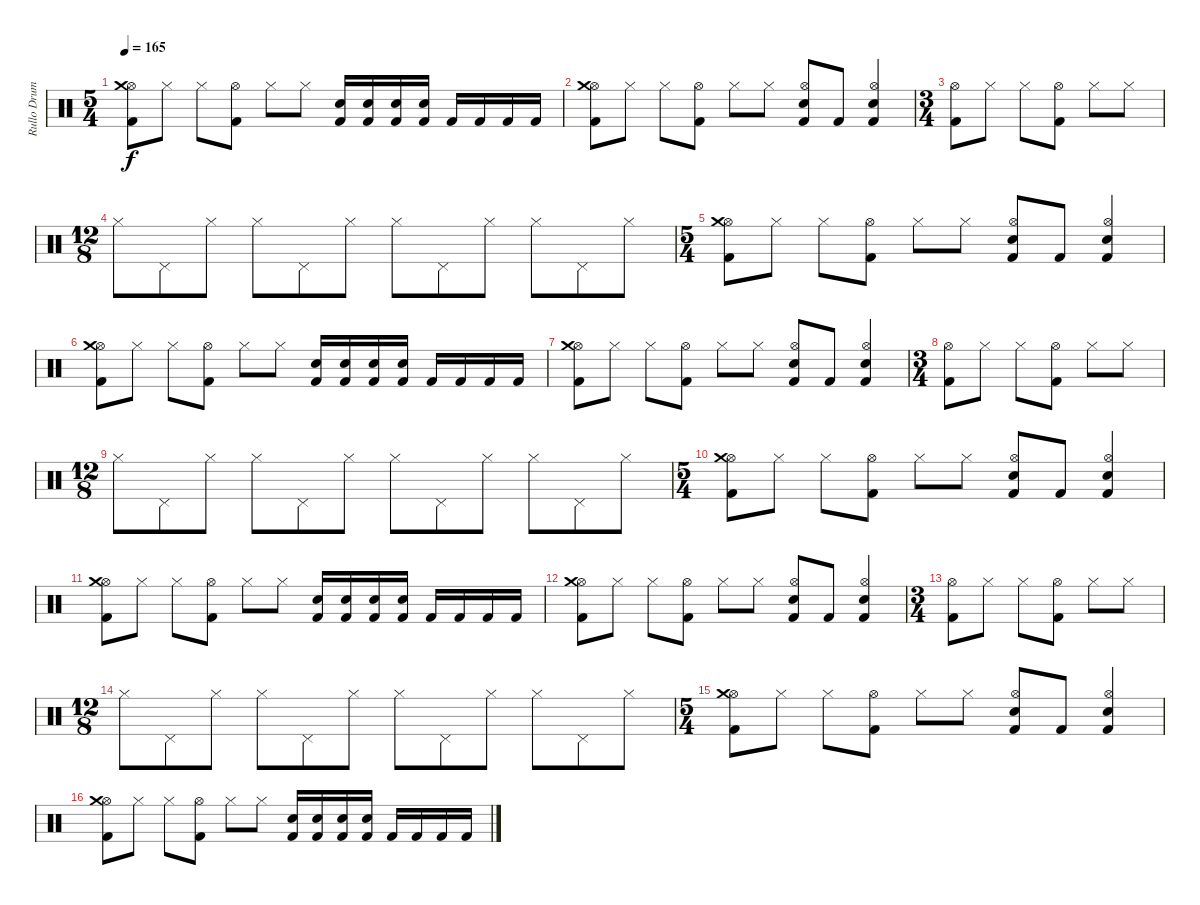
\track ("Rullo Drums" "Rullo Drum") {instrument percussion}
\staff {score}
\articulation defaults
\ts (5 4)
\tempo 165
\clef neutral
\ks c
("Kick (hit) 2" "Hi-Hat (open)" "Crash medium (hit)").8{dy f} "Hi-Hat (closed)".8 "Hi-Hat (closed)".8 ("Kick (hit) 2" "Hi-Hat (open)").8 "Hi-Hat (closed)".8 "Hi-Hat (closed)".8 ("Kick (hit) 2" "Snare (hit) 2").16 ("Kick (hit) 2" "Snare (hit) 2").16 ("Kick (hit) 2" "Snare (hit) 2").16 ("Kick (hit) 2" "Snare (hit) 2").16 "Kick (hit) 2".16 "Kick (hit) 2".16 "Kick (hit) 2".16 "Kick (hit) 2".16 |
("Kick (hit) 2" "Hi-Hat (open)" "Crash medium (hit)").8 "Hi-Hat (closed)".8 "Hi-Hat (closed)".8 ("Kick (hit) 2" "Hi-Hat (open)").8 "Hi-Hat (closed)".8 "Hi-Hat (closed)".8 ("Kick (hit) 2" "Snare (hit) 2" "Hi-Hat (open)").8 "Kick (hit) 2".8 ("Kick (hit) 2" "Snare (hit) 2" "Hi-Hat (open)").4 |
\ts (3 4)
("Kick (hit) 2" "Hi-Hat (open)").8 "Hi-Hat (closed)".8 "Hi-Hat (closed)".8 ("Kick (hit) 2" "Hi-Hat (open)").8 "Hi-Hat (closed)".8 "Hi-Hat (closed)".8 |
\ts (12 8)
"Hi-Hat (closed)".8 "Pedal Hi-Hat (hit)".8 "Hi-Hat (closed)".8 "Hi-Hat (closed)".8 "Pedal Hi-Hat (hit)".8 "Hi-Hat (closed)".8 "Hi-Hat (closed)".8 "Pedal Hi-Hat (hit)".8 "Hi-Hat (closed)".8 "Hi-Hat (closed)".8 "Pedal Hi-Hat (hit)".8 "Hi-Hat (closed)".8 |
\ts (5 4)
("Kick (hit) 2" "Hi-Hat (open)" "Crash medium (hit)").8 "Hi-Hat (closed)".8 "Hi-Hat (closed)".8 ("Kick (hit) 2" "Hi-Hat (open)").8 "Hi-Hat (closed)".8 "Hi-Hat (closed)".8 ("Kick (hit) 2" "Snare (hit) 2" "Hi-Hat (open)").8 "Kick (hit) 2".8 ("Kick (hit) 2" "Snare (hit) 2" "Hi-Hat (open)").4 |
("Kick (hit) 2" "Hi-Hat (open)" "Crash medium (hit)").8 "Hi-Hat (closed)".8 "Hi-Hat (closed)".8 ("Kick (hit) 2" "Hi-Hat (open)").8 "Hi-Hat (closed)".8 "Hi-Hat (closed)".8 ("Kick (hit) 2" "Snare (hit) 2").16 ("Kick (hit) 2" "Snare (hit) 2").16 ("Kick (hit) 2" "Snare (hit) 2").16 ("Kick (hit) 2" "Snare (hit) 2").16 "Kick (hit) 2".16 "Kick (hit) 2".16 "Kick (hit) 2".16 "Kick (hit) 2".16 |
("Kick (hit) 2" "Hi-Hat (open)" "Crash medium (hit)").8 "Hi-Hat (closed)".8 "Hi-Hat (closed)".8 ("Kick (hit) 2" "Hi-Hat (open)").8 "Hi-Hat (closed)".8 "Hi-Hat (closed)".8 ("Kick (hit) 2" "Snare (hit) 2" "Hi-Hat (open)").8 "Kick (hit) 2".8 ("Kick (hit) 2" "Snare (hit) 2" "Hi-Hat (open)").4 |
\ts (3 4)
("Kick (hit) 2" "Hi-Hat (open)").8 "Hi-Hat (closed)".8 "Hi-Hat (closed)".8 ("Kick (hit) 2" "Hi-Hat (open)").8 "Hi-Hat (closed)".8 "Hi-Hat (closed)".8 |
\ts (12 8)
"Hi-Hat (closed)".8 "Pedal Hi-Hat (hit)".8 "Hi-Hat (closed)".8 "Hi-Hat (closed)".8 "Pedal Hi-Hat (hit)".8 "Hi-Hat (closed)".8 "Hi-Hat (closed)".8 "Pedal Hi-Hat (hit)".8 "Hi-Hat (closed)".8 "Hi-Hat (closed)".8 "Pedal Hi-Hat (hit)".8 "Hi-Hat (closed)".8 |
\ts (5 4)
("Kick (hit) 2" "Hi-Hat (open)" "Crash medium (hit)").8 "Hi-Hat (closed)".8 "Hi-Hat (closed)".8 ("Kick (hit) 2" "Hi-Hat (open)").8 "Hi-Hat (closed)".8 "Hi-Hat (closed)".8 ("Kick (hit) 2" "Snare (hit) 2" "Hi-Hat (open)").8 "Kick (hit) 2".8 ("Kick (hit) 2" "Snare (hit) 2" "Hi-Hat (open)").4 |
("Kick (hit) 2" "Hi-Hat (open)" "Crash medium (hit)").8 "Hi-Hat (closed)".8 "Hi-Hat (closed)".8 ("Kick (hit) 2" "Hi-Hat (open)").8 "Hi-Hat (closed)".8 "Hi-Hat (closed)".8 ("Kick (hit) 2" "Snare (hit) 2").16 ("Kick (hit) 2" "Snare (hit) 2").16 ("Kick (hit) 2" "Snare (hit) 2").16 ("Kick (hit) 2" "Snare (hit) 2").16 "Kick (hit) 2".16 "Kick (hit) 2".16 "Kick (hit) 2".16 "Kick (hit) 2".16 |
("Kick (hit) 2" "Hi-Hat (open)" "Crash medium (hit)").8 "Hi-Hat (closed)".8 "Hi-Hat (closed)".8 ("Kick (hit) 2" "Hi-Hat (open)").8 "Hi-Hat (closed)".8 "Hi-Hat (closed)".8 ("Kick (hit) 2" "Snare (hit) 2" "Hi-Hat (open)").8 "Kick (hit) 2".8 ("Kick (hit) 2" "Snare (hit) 2" "Hi-Hat (open)").4 |
\ts (3 4)
("Kick (hit) 2" "Hi-Hat (open)").8 "Hi-Hat (closed)".8 "Hi-Hat (closed)".8 ("Kick (hit) 2" "Hi-Hat (open)").8 "Hi-Hat (closed)".8 "Hi-Hat (closed)".8 |
\ts (12 8)
"Hi-Hat (closed)".8 "Pedal Hi-Hat (hit)".8 "Hi-Hat (closed)".8 "Hi-Hat (closed)".8 "Pedal Hi-Hat (hit)".8 "Hi-Hat (closed)".8 "Hi-Hat (closed)".8 "Pedal Hi-Hat (hit)".8 "Hi-Hat (closed)".8 "Hi-Hat (closed)".8 "Pedal Hi-Hat (hit)".8 "Hi-Hat (closed)".8 |
\ts (5 4)
("Kick (hit) 2" "Hi-Hat (open)" "Crash medium (hit)").8 "Hi-Hat (closed)".8 "Hi-Hat (closed)".8 ("Kick (hit) 2" "Hi-Hat (open)").8 "Hi-Hat (closed)".8 "Hi-Hat (closed)".8 ("Kick (hit) 2" "Snare (hit) 2" "Hi-Hat (open)").8 "Kick (hit) 2".8 ("Kick (hit) 2" "Snare (hit) 2" "Hi-Hat (open)").4 |
("Kick (hit) 2" "Hi-Hat (open)" "Crash medium (hit)").8 "Hi-Hat (closed)".8 "Hi-Hat (closed)".8 ("Kick (hit) 2" "Hi-Hat (open)").8 "Hi-Hat (closed)".8 "Hi-Hat (closed)".8 ("Kick (hit) 2" "Snare (hit) 2").16 ("Kick (hit) 2" "Snare (hit) 2").16 ("Kick (hit) 2" "Snare (hit) 2").16 ("Kick (hit) 2" "Snare (hit) 2").16 "Kick (hit) 2".16 "Kick (hit) 2".16 "Kick (hit) 2".16 "Kick (hit) 2".16
